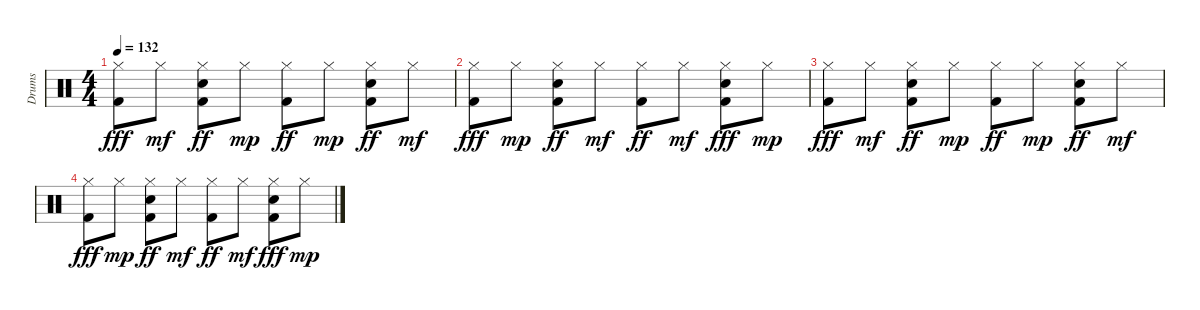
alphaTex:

\track ("Drums" "Drums") {instrument percussion}
\staff {score}
\articulation defaults
\ts (4 4)
\tempo 132
\clef neutral
\ks c
("Kick (hit) 2" "Hi-Hat (closed)").8{dy fff} "Hi-Hat (closed)".8{dy mf} ("Hi-Hat (closed)" "Kick (hit) 2" "Snare (hit) 2").8{dy ff} "Hi-Hat (closed)".8{dy mp} ("Hi-Hat (closed)" "Kick (hit) 2").8{dy ff} "Hi-Hat (closed)".8{dy mp} ("Hi-Hat (closed)" "Snare (hit) 2" "Kick (hit) 2").8{dy ff} "Hi-Hat (closed)".8{dy mf} |
("Hi-Hat (closed)" "Kick (hit) 2").8{dy fff} "Hi-Hat (closed)".8{dy mp} ("Hi-Hat (closed)" "Snare (hit) 2" "Kick (hit) 2").8{dy ff} "Hi-Hat (closed)".8{dy mf} ("Kick (hit) 2" "Hi-Hat (closed)").8{dy ff} "Hi-Hat (closed)".8{dy mf} ("Snare (hit) 2" "Hi-Hat (closed)" "Kick (hit) 2").8{dy fff} "Hi-Hat (closed)".8{dy mp} |
("Hi-Hat (closed)" "Kick (hit) 2").8{dy fff volume 13} "Hi-Hat (closed)".8{dy mf volume 12} ("Hi-Hat (closed)" "Kick (hit) 2" "Snare (hit) 2").8{dy ff volume 12} "Hi-Hat (closed)".8{dy mp volume 11} ("Hi-Hat (closed)" "Kick (hit) 2").8{dy ff volume 10} "Hi-Hat (closed)".8{dy mp volume 9} ("Kick (hit) 2" "Snare (hit) 2" "Hi-Hat (closed)").8{dy ff volume 8} "Hi-Hat (closed)".8{dy mf volume 7} |
("Hi-Hat (closed)" "Kick (hit) 2").8{dy fff volume 0} "Hi-Hat (closed)".8{dy mp volume 6} ("Hi-Hat (closed)" "Kick (hit) 2" "Snare (hit) 2").8{dy ff volume 5} "Hi-Hat (closed)".8{dy mf volume 4} ("Hi-Hat (closed)" "Kick (hit) 2").8{dy ff volume 3} "Hi-Hat (closed)".8{dy mf volume 2} ("Hi-Hat (closed)" "Kick (hit) 2" "Snare (hit) 2").8{dy fff volume 2} "Hi-Hat (closed)".8{dy mp volume 1}
